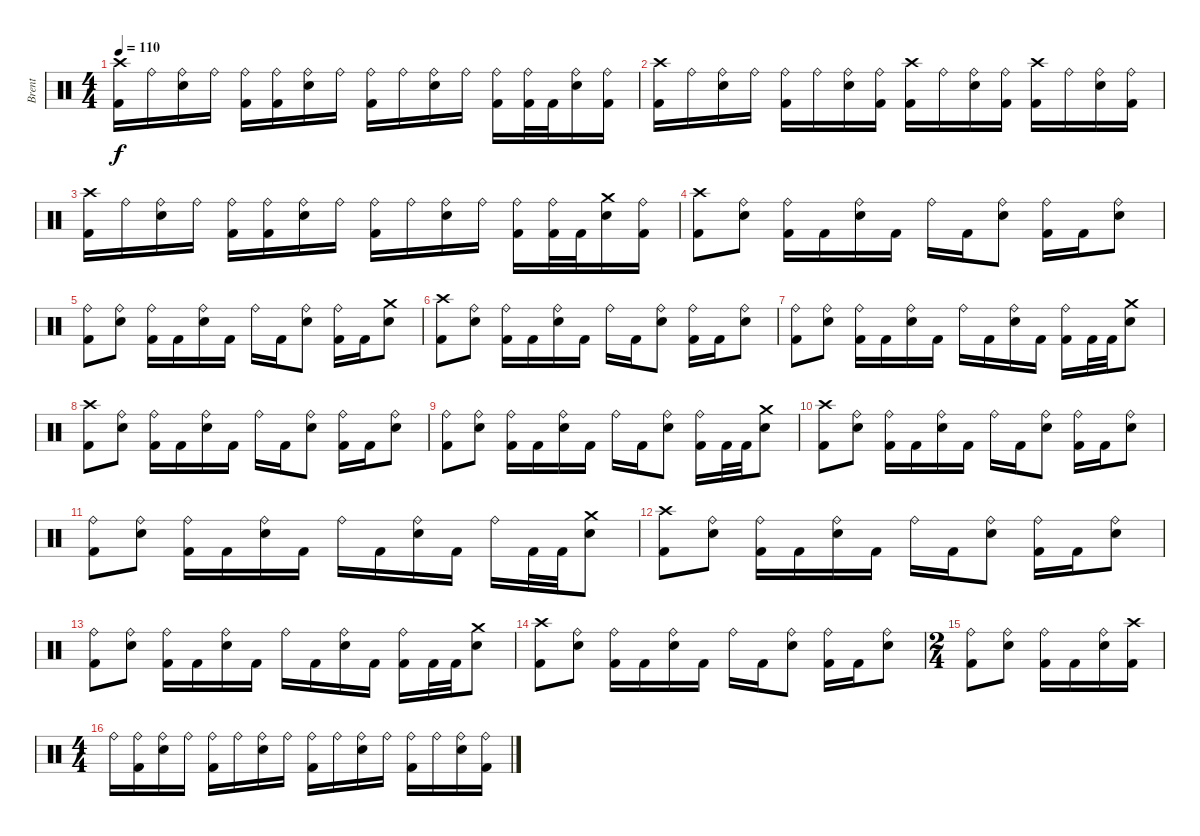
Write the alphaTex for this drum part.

\track ("Brent" "Brent") {instrument percussion}
\staff {score}
\articulation defaults
\ts (4 4)
\tempo 110
\clef neutral
\ks c
("Crash high (hit)" "Kick (hit) 2").16{dy f} "Ride (bell)".16 ("Ride (bell)" "Snare (hit) 2").16 "Ride (bell)".16 ("Ride (bell)" "Kick (hit) 2").16 ("Ride (bell)" "Kick (hit) 2").16 ("Ride (bell)" "Snare (hit) 2").16 "Ride (bell)".16 ("Ride (bell)" "Kick (hit) 2").16 "Ride (bell)".16 ("Ride (bell)" "Snare (hit) 2").16 "Ride (bell)".16 ("Ride (bell)" "Kick (hit) 2").16 ("Ride (bell)" "Kick (hit) 2").32 "Kick (hit) 2".32 ("Ride (bell)" "Snare (hit) 2").16 ("Ride (bell)" "Kick (hit) 2").16 |
("Crash high (hit)" "Kick (hit) 2").16 "Ride (bell)".16 ("Ride (bell)" "Snare (hit) 2").16 "Ride (bell)".16 ("Ride (bell)" "Kick (hit) 2").16 "Ride (bell)".16 ("Ride (bell)" "Snare (hit) 2").16 ("Ride (bell)" "Kick (hit) 2").16 ("Crash high (hit)" "Kick (hit) 2").16 "Ride (bell)".16 ("Ride (bell)" "Snare (hit) 2").16 ("Ride (bell)" "Kick (hit) 2").16 ("Crash high (hit)" "Kick (hit) 2").16 "Ride (bell)".16 ("Ride (bell)" "Snare (hit) 2").16 ("Ride (bell)" "Kick (hit) 2").16 |
("Crash high (hit)" "Kick (hit) 2").16 "Ride (bell)".16 ("Ride (bell)" "Snare (hit) 2").16 "Ride (bell)".16 ("Ride (bell)" "Kick (hit) 2").16 ("Ride (bell)" "Kick (hit) 2").16 ("Ride (bell)" "Snare (hit) 2").16 "Ride (bell)".16 ("Ride (bell)" "Kick (hit) 2").16 "Ride (bell)".16 ("Ride (bell)" "Snare (hit) 2").16 "Ride (bell)".16 ("Ride (bell)" "Kick (hit) 2").16 ("Ride (bell)" "Kick (hit) 2").32 "Kick (hit) 2".32 ("Crash medium (hit)" "Snare (hit) 2").16 ("Ride (bell)" "Kick (hit) 2").16 |
("Crash high (hit)" "Kick (hit) 2").8 ("Ride (bell)" "Snare (hit) 2").8 ("Ride (bell)" "Kick (hit) 2").16 "Kick (hit) 2".16 ("Ride (bell)" "Snare (hit) 2").16 "Kick (hit) 2".16 "Ride (bell)".16 "Kick (hit) 2".16 ("Ride (bell)" "Snare (hit) 2").8 ("Ride (bell)" "Kick (hit) 2").16 "Kick (hit) 2".16 ("Ride (bell)" "Snare (hit) 2").8 |
("Ride (bell)" "Kick (hit) 2").8 ("Ride (bell)" "Snare (hit) 2").8 ("Ride (bell)" "Kick (hit) 2").16 "Kick (hit) 2".16 ("Ride (bell)" "Snare (hit) 2").16 "Kick (hit) 2".16 "Ride (bell)".16 "Kick (hit) 2".16 ("Ride (bell)" "Snare (hit) 2").8 ("Ride (bell)" "Kick (hit) 2").16 "Kick (hit) 2".16 ("Crash medium (hit)" "Snare (hit) 2").8 |
("Crash high (hit)" "Kick (hit) 2").8 ("Ride (bell)" "Snare (hit) 2").8 ("Ride (bell)" "Kick (hit) 2").16 "Kick (hit) 2".16 ("Ride (bell)" "Snare (hit) 2").16 "Kick (hit) 2".16 "Ride (bell)".16 "Kick (hit) 2".16 ("Ride (bell)" "Snare (hit) 2").8 ("Ride (bell)" "Kick (hit) 2").16 "Kick (hit) 2".16 ("Ride (bell)" "Snare (hit) 2").8 |
("Ride (bell)" "Kick (hit) 2").8 ("Ride (bell)" "Snare (hit) 2").8 ("Ride (bell)" "Kick (hit) 2").16 "Kick (hit) 2".16 ("Ride (bell)" "Snare (hit) 2").16 "Kick (hit) 2".16 "Ride (bell)".16 "Kick (hit) 2".16 ("Ride (bell)" "Snare (hit) 2").16 "Kick (hit) 2".16 ("Ride (bell)" "Kick (hit) 2").16 "Kick (hit) 2".32 "Kick (hit) 2".32 ("Crash medium (hit)" "Snare (hit) 2").8 |
("Crash high (hit)" "Kick (hit) 2").8 ("Ride (bell)" "Snare (hit) 2").8 ("Ride (bell)" "Kick (hit) 2").16 "Kick (hit) 2".16 ("Ride (bell)" "Snare (hit) 2").16 "Kick (hit) 2".16 "Ride (bell)".16 "Kick (hit) 2".16 ("Ride (bell)" "Snare (hit) 2").8 ("Ride (bell)" "Kick (hit) 2").16 "Kick (hit) 2".16 ("Ride (bell)" "Snare (hit) 2").8 |
("Ride (bell)" "Kick (hit) 2").8 ("Ride (bell)" "Snare (hit) 2").8 ("Ride (bell)" "Kick (hit) 2").16 "Kick (hit) 2".16 ("Ride (bell)" "Snare (hit) 2").16 "Kick (hit) 2".16 "Ride (bell)".16 "Kick (hit) 2".16 ("Ride (bell)" "Snare (hit) 2").8 ("Ride (bell)" "Kick (hit) 2").16 "Kick (hit) 2".32 "Kick (hit) 2".32 ("Crash medium (hit)" "Snare (hit) 2").8 |
("Crash high (hit)" "Kick (hit) 2").8 ("Ride (bell)" "Snare (hit) 2").8 ("Ride (bell)" "Kick (hit) 2").16 "Kick (hit) 2".16 ("Ride (bell)" "Snare (hit) 2").16 "Kick (hit) 2".16 "Ride (bell)".16 "Kick (hit) 2".16 ("Ride (bell)" "Snare (hit) 2").8 ("Ride (bell)" "Kick (hit) 2").16 "Kick (hit) 2".16 ("Ride (bell)" "Snare (hit) 2").8 |
("Ride (bell)" "Kick (hit) 2").8 ("Ride (bell)" "Snare (hit) 2").8 ("Ride (bell)" "Kick (hit) 2").16 "Kick (hit) 2".16 ("Ride (bell)" "Snare (hit) 2").16 "Kick (hit) 2".16 "Ride (bell)".16 "Kick (hit) 2".16 ("Ride (bell)" "Snare (hit) 2").16 "Kick (hit) 2".16 "Ride (bell)".16 "Kick (hit) 2".32 "Kick (hit) 2".32 ("Crash medium (hit)" "Snare (hit) 2").8 |
("Crash high (hit)" "Kick (hit) 2").8 ("Ride (bell)" "Snare (hit) 2").8 ("Ride (bell)" "Kick (hit) 2").16 "Kick (hit) 2".16 ("Ride (bell)" "Snare (hit) 2").16 "Kick (hit) 2".16 "Ride (bell)".16 "Kick (hit) 2".16 ("Ride (bell)" "Snare (hit) 2").8 ("Ride (bell)" "Kick (hit) 2").16 "Kick (hit) 2".16 ("Ride (bell)" "Snare (hit) 2").8 |
("Ride (bell)" "Kick (hit) 2").8 ("Ride (bell)" "Snare (hit) 2").8 ("Ride (bell)" "Kick (hit) 2").16 "Kick (hit) 2".16 ("Ride (bell)" "Snare (hit) 2").16 "Kick (hit) 2".16 "Ride (bell)".16 "Kick (hit) 2".16 ("Ride (bell)" "Snare (hit) 2").16 "Kick (hit) 2".16 ("Ride (bell)" "Kick (hit) 2").16 "Kick (hit) 2".32 "Kick (hit) 2".32 ("Crash medium (hit)" "Snare (hit) 2").8 |
("Crash high (hit)" "Kick (hit) 2").8 ("Ride (bell)" "Snare (hit) 2").8 ("Ride (bell)" "Kick (hit) 2").16 "Kick (hit) 2".16 ("Ride (bell)" "Snare (hit) 2").16 "Kick (hit) 2".16 "Ride (bell)".16 "Kick (hit) 2".16 ("Ride (bell)" "Snare (hit) 2").8 ("Ride (bell)" "Kick (hit) 2").16 "Kick (hit) 2".16 ("Ride (bell)" "Snare (hit) 2").8 |
\ts (2 4)
("Ride (bell)" "Kick (hit) 2").8 ("Ride (bell)" "Snare (hit) 2").8 ("Ride (bell)" "Kick (hit) 2").16 "Kick (hit) 2".16 ("Ride (bell)" "Snare (hit) 2").16 ("Crash high (hit)" "Kick (hit) 2").16 |
\ts (4 4)
"Ride (bell)".16 ("Ride (bell)" "Kick (hit) 2").16 ("Ride (bell)" "Snare (hit) 2").16 "Ride (bell)".16 ("Ride (bell)" "Kick (hit) 2").16 "Ride (bell)".16 ("Ride (bell)" "Snare (hit) 2").16 "Ride (bell)".16 ("Ride (bell)" "Kick (hit) 2").16 "Ride (bell)".16 ("Ride (bell)" "Snare (hit) 2").16 "Ride (bell)".16 ("Ride (bell)" "Kick (hit) 2").16 "Ride (bell)".16 ("Ride (bell)" "Snare (hit) 2").16 ("Ride (bell)" "Kick (hit) 2").16
